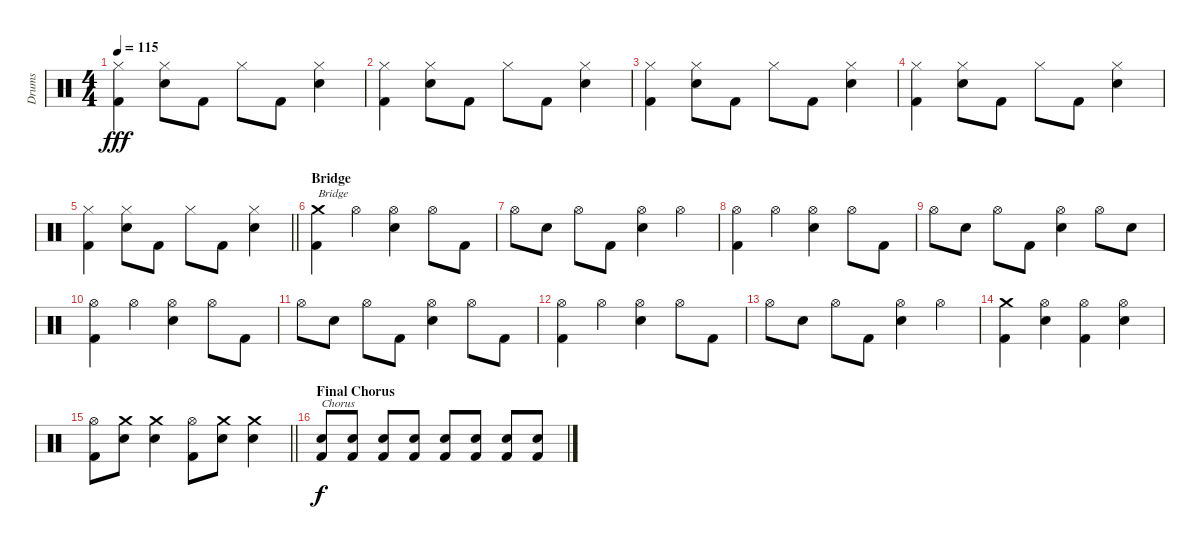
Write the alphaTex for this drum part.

\track ("Drums" "Drums") {instrument percussion}
\staff {score}
\articulation defaults
\ts (4 4)
\tempo 115
\clef neutral
\ks c
("Hi-Hat (closed)" "Kick (hit) 2").4{dy fff} ("Hi-Hat (closed)" "Snare (hit) 2").8 "Kick (hit) 2".8 "Hi-Hat (closed)".8 "Kick (hit) 2".8 ("Hi-Hat (closed)" "Snare (hit) 2").4 |
("Hi-Hat (closed)" "Kick (hit) 2").4 ("Hi-Hat (closed)" "Snare (hit) 2").8 "Kick (hit) 2".8 "Hi-Hat (closed)".8 "Kick (hit) 2".8 ("Hi-Hat (closed)" "Snare (hit) 2").4 |
("Hi-Hat (closed)" "Kick (hit) 2").4 ("Hi-Hat (closed)" "Snare (hit) 2").8 "Kick (hit) 2".8 "Hi-Hat (closed)".8 "Kick (hit) 2".8 ("Hi-Hat (closed)" "Snare (hit) 2").4 |
("Hi-Hat (closed)" "Kick (hit) 2").4 ("Hi-Hat (closed)" "Snare (hit) 2").8 "Kick (hit) 2".8 "Hi-Hat (closed)".8 "Kick (hit) 2".8 ("Hi-Hat (closed)" "Snare (hit) 2").4 |
\barLineRight lightlight
("Hi-Hat (closed)" "Kick (hit) 2").4 ("Hi-Hat (closed)" "Snare (hit) 2").8 "Kick (hit) 2".8 "Hi-Hat (closed)".8 "Kick (hit) 2".8 ("Hi-Hat (closed)" "Snare (hit) 2").4 |
\section ("" "Bridge")
("Crash medium (hit)" "Kick (hit) 2").4{txt "Bridge"} "Hi-Hat (open)".4 ("Hi-Hat (open)" "Snare (hit) 2").4 "Hi-Hat (open)".8 "Kick (hit) 2".8 |
"Hi-Hat (open)".8 "Snare (hit) 2".8 "Hi-Hat (open)".8 "Kick (hit) 2".8 ("Hi-Hat (open)" "Snare (hit) 2").4 "Hi-Hat (open)".4 |
("Hi-Hat (open)" "Kick (hit) 2").4 "Hi-Hat (open)".4 ("Hi-Hat (open)" "Snare (hit) 2").4 "Hi-Hat (open)".8 "Kick (hit) 2".8 |
"Hi-Hat (open)".8 "Snare (hit) 2".8 "Hi-Hat (open)".8 "Kick (hit) 2".8 ("Hi-Hat (open)" "Snare (hit) 2").4 "Hi-Hat (open)".8 "Snare (hit) 2".8 |
("Hi-Hat (open)" "Kick (hit) 2").4 "Hi-Hat (open)".4 ("Hi-Hat (open)" "Snare (hit) 2").4 "Hi-Hat (open)".8 "Kick (hit) 2".8 |
"Hi-Hat (open)".8 "Snare (hit) 2".8 "Hi-Hat (open)".8 "Kick (hit) 2".8 ("Hi-Hat (open)" "Snare (hit) 2").4 "Hi-Hat (open)".8 "Kick (hit) 2".8 |
("Hi-Hat (open)" "Kick (hit) 2").4 "Hi-Hat (open)".4 ("Hi-Hat (open)" "Snare (hit) 2").4 "Hi-Hat (open)".8 "Kick (hit) 2".8 |
"Hi-Hat (open)".8 "Snare (hit) 2".8 "Hi-Hat (open)".8 "Kick (hit) 2".8 ("Hi-Hat (open)" "Snare (hit) 2").4 "Hi-Hat (open)".4 |
("Crash medium (hit)" "Kick (hit) 2").4 ("Hi-Hat (open)" "Snare (hit) 2").4 ("Hi-Hat (open)" "Kick (hit) 2").4 ("Hi-Hat (open)" "Snare (hit) 2").4 |
\barLineRight lightlight
("Hi-Hat (open)" "Kick (hit) 2").8 ("Crash medium (hit)" "Snare (hit) 2").8 ("Crash medium (hit)" "Snare (hit) 2").4 ("Hi-Hat (open)" "Kick (hit) 2").8 ("Crash medium (hit)" "Snare (hit) 2").8 ("Crash medium (hit)" "Snare (hit) 2").4 |
\section ("" "Final Chorus")
("Snare (hit) 2" "Kick (hit) 2").8{txt "Chorus" dy f} ("Snare (hit) 2" "Kick (hit) 2").8 ("Snare (hit) 2" "Kick (hit) 2").8 ("Snare (hit) 2" "Kick (hit) 2").8 ("Snare (hit) 2" "Kick (hit) 2").8 ("Snare (hit) 2" "Kick (hit) 2").8 ("Snare (hit) 2" "Kick (hit) 2").8 ("Snare (hit) 2" "Kick (hit) 2").8
